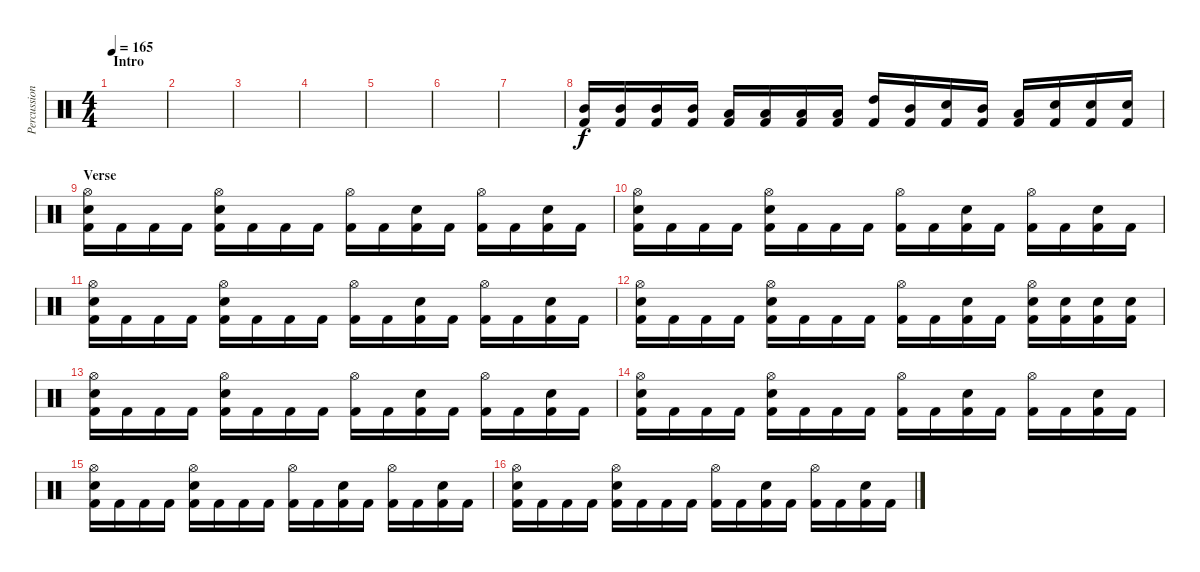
\track ("Percussion" "Percussion") {instrument percussion}
\staff {score}
\articulation defaults
\ts (4 4)
\section ("" "Intro")
\tempo 165
\clef neutral
\ks c
|
|
|
|
|
|
|
("Mid Tom (hit)" "Kick (hit) 2").16 ("Mid Tom (hit)" "Kick (hit) 2").16 ("Mid Tom (hit)" "Kick (hit) 2").16 ("Mid Tom (hit)" "Kick (hit) 2").16 ("Low Tom (hit)" "Kick (hit) 2").16 ("Low Tom (hit)" "Kick (hit) 2").16 ("Low Tom (hit)" "Kick (hit) 2").16 ("Low Tom (hit)" "Kick (hit) 2").16 ("High Tom (hit)" "Kick (hit) 2").16 ("Mid Tom (hit)" "Kick (hit) 2").16 ("Snare (hit) 2" "Kick (hit) 2").16 ("Mid Tom (hit)" "Kick (hit) 2").16 ("Low Tom (hit)" "Kick (hit) 2").16 ("Snare (hit) 2" "Kick (hit) 2").16 ("Snare (hit) 2" "Kick (hit) 2").16 ("Snare (hit) 2" "Kick (hit) 2").16 |
\section ("" "Verse")
("Hi-Hat (open)" "Snare (hit) 2" "Kick (hit) 2").16 "Kick (hit) 2".16 "Kick (hit) 2".16 "Kick (hit) 2".16 ("Hi-Hat (open)" "Snare (hit) 2" "Kick (hit) 2").16 "Kick (hit) 2".16 "Kick (hit) 2".16 "Kick (hit) 2".16 ("Hi-Hat (open)" "Kick (hit) 2").16 "Kick (hit) 2".16 ("Snare (hit) 2" "Kick (hit) 2").16 "Kick (hit) 2".16 ("Hi-Hat (open)" "Kick (hit) 2").16 "Kick (hit) 2".16 ("Snare (hit) 2" "Kick (hit) 2").16 "Kick (hit) 2".16 |
("Hi-Hat (open)" "Snare (hit) 2" "Kick (hit) 2").16 "Kick (hit) 2".16 "Kick (hit) 2".16 "Kick (hit) 2".16 ("Hi-Hat (open)" "Snare (hit) 2" "Kick (hit) 2").16 "Kick (hit) 2".16 "Kick (hit) 2".16 "Kick (hit) 2".16 ("Hi-Hat (open)" "Kick (hit) 2").16 "Kick (hit) 2".16 ("Snare (hit) 2" "Kick (hit) 2").16 "Kick (hit) 2".16 ("Hi-Hat (open)" "Kick (hit) 2").16 "Kick (hit) 2".16 ("Snare (hit) 2" "Kick (hit) 2").16 "Kick (hit) 2".16 |
("Hi-Hat (open)" "Snare (hit) 2" "Kick (hit) 2").16 "Kick (hit) 2".16 "Kick (hit) 2".16 "Kick (hit) 2".16 ("Hi-Hat (open)" "Snare (hit) 2" "Kick (hit) 2").16 "Kick (hit) 2".16 "Kick (hit) 2".16 "Kick (hit) 2".16 ("Hi-Hat (open)" "Kick (hit) 2").16 "Kick (hit) 2".16 ("Snare (hit) 2" "Kick (hit) 2").16 "Kick (hit) 2".16 ("Hi-Hat (open)" "Kick (hit) 2").16 "Kick (hit) 2".16 ("Snare (hit) 2" "Kick (hit) 2").16 "Kick (hit) 2".16 |
("Hi-Hat (open)" "Snare (hit) 2" "Kick (hit) 2").16 "Kick (hit) 2".16 "Kick (hit) 2".16 "Kick (hit) 2".16 ("Hi-Hat (open)" "Snare (hit) 2" "Kick (hit) 2").16 "Kick (hit) 2".16 "Kick (hit) 2".16 "Kick (hit) 2".16 ("Hi-Hat (open)" "Kick (hit) 2").16 "Kick (hit) 2".16 ("Snare (hit) 2" "Kick (hit) 2").16 "Kick (hit) 2".16 ("Hi-Hat (open)" "Snare (hit) 2" "Kick (hit) 2").16 ("Snare (hit) 2" "Kick (hit) 2").16 ("Snare (hit) 2" "Kick (hit) 2").16 ("Snare (hit) 2" "Kick (hit) 2").16 |
("Hi-Hat (open)" "Snare (hit) 2" "Kick (hit) 2").16 "Kick (hit) 2".16 "Kick (hit) 2".16 "Kick (hit) 2".16 ("Hi-Hat (open)" "Snare (hit) 2" "Kick (hit) 2").16 "Kick (hit) 2".16 "Kick (hit) 2".16 "Kick (hit) 2".16 ("Hi-Hat (open)" "Kick (hit) 2").16 "Kick (hit) 2".16 ("Snare (hit) 2" "Kick (hit) 2").16 "Kick (hit) 2".16 ("Hi-Hat (open)" "Kick (hit) 2").16 "Kick (hit) 2".16 ("Snare (hit) 2" "Kick (hit) 2").16 "Kick (hit) 2".16 |
("Hi-Hat (open)" "Snare (hit) 2" "Kick (hit) 2").16 "Kick (hit) 2".16 "Kick (hit) 2".16 "Kick (hit) 2".16 ("Hi-Hat (open)" "Snare (hit) 2" "Kick (hit) 2").16 "Kick (hit) 2".16 "Kick (hit) 2".16 "Kick (hit) 2".16 ("Hi-Hat (open)" "Kick (hit) 2").16 "Kick (hit) 2".16 ("Snare (hit) 2" "Kick (hit) 2").16 "Kick (hit) 2".16 ("Hi-Hat (open)" "Kick (hit) 2").16 "Kick (hit) 2".16 ("Snare (hit) 2" "Kick (hit) 2").16 "Kick (hit) 2".16 |
("Hi-Hat (open)" "Snare (hit) 2" "Kick (hit) 2").16 "Kick (hit) 2".16 "Kick (hit) 2".16 "Kick (hit) 2".16 ("Hi-Hat (open)" "Snare (hit) 2" "Kick (hit) 2").16 "Kick (hit) 2".16 "Kick (hit) 2".16 "Kick (hit) 2".16 ("Hi-Hat (open)" "Kick (hit) 2").16 "Kick (hit) 2".16 ("Snare (hit) 2" "Kick (hit) 2").16 "Kick (hit) 2".16 ("Hi-Hat (open)" "Kick (hit) 2").16 "Kick (hit) 2".16 ("Snare (hit) 2" "Kick (hit) 2").16 "Kick (hit) 2".16 |
("Hi-Hat (open)" "Snare (hit) 2" "Kick (hit) 2").16 "Kick (hit) 2".16 "Kick (hit) 2".16 "Kick (hit) 2".16 ("Hi-Hat (open)" "Snare (hit) 2" "Kick (hit) 2").16 "Kick (hit) 2".16 "Kick (hit) 2".16 "Kick (hit) 2".16 ("Hi-Hat (open)" "Kick (hit) 2").16 "Kick (hit) 2".16 ("Snare (hit) 2" "Kick (hit) 2").16 "Kick (hit) 2".16 ("Hi-Hat (open)" "Kick (hit) 2").16 "Kick (hit) 2".16 ("Snare (hit) 2" "Kick (hit) 2").16 "Kick (hit) 2".16
